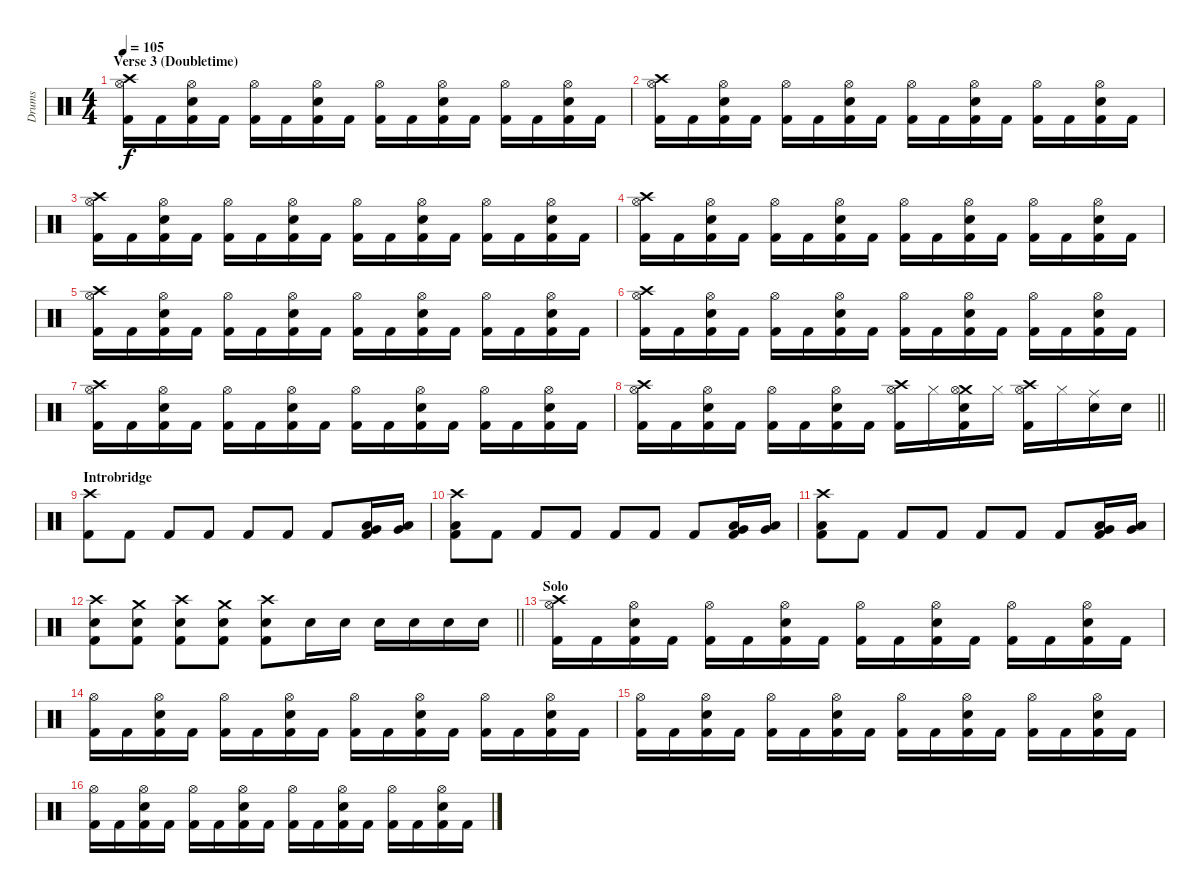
\track ("Drums" "Drums") {instrument percussion}
\staff {score}
\articulation defaults
\ts (4 4)
\section ("" "Verse 3 (Doubletime)")
\tempo 105
\clef neutral
\ks c
("Crash high (hit)" "Hi-Hat (open)" "Kick (hit) 2").16{dy f} "Kick (hit) 2".16 ("Hi-Hat (open)" "Snare (hit) 2" "Kick (hit) 2").16 "Kick (hit) 2".16 ("Hi-Hat (open)" "Kick (hit) 2").16 "Kick (hit) 2".16 ("Hi-Hat (open)" "Snare (hit) 2" "Kick (hit) 2").16 "Kick (hit) 2".16 ("Hi-Hat (open)" "Kick (hit) 2").16 "Kick (hit) 2".16 ("Hi-Hat (open)" "Snare (hit) 2" "Kick (hit) 2").16 "Kick (hit) 2".16 ("Hi-Hat (open)" "Kick (hit) 2").16 "Kick (hit) 2".16 ("Hi-Hat (open)" "Snare (hit) 2" "Kick (hit) 2").16 "Kick (hit) 2".16 |
("Crash high (hit)" "Hi-Hat (open)" "Kick (hit) 2").16 "Kick (hit) 2".16 ("Hi-Hat (open)" "Snare (hit) 2" "Kick (hit) 2").16 "Kick (hit) 2".16 ("Hi-Hat (open)" "Kick (hit) 2").16 "Kick (hit) 2".16 ("Hi-Hat (open)" "Snare (hit) 2" "Kick (hit) 2").16 "Kick (hit) 2".16 ("Hi-Hat (open)" "Kick (hit) 2").16 "Kick (hit) 2".16 ("Hi-Hat (open)" "Snare (hit) 2" "Kick (hit) 2").16 "Kick (hit) 2".16 ("Hi-Hat (open)" "Kick (hit) 2").16 "Kick (hit) 2".16 ("Hi-Hat (open)" "Snare (hit) 2" "Kick (hit) 2").16 "Kick (hit) 2".16 |
("Crash high (hit)" "Hi-Hat (open)" "Kick (hit) 2").16 "Kick (hit) 2".16 ("Hi-Hat (open)" "Snare (hit) 2" "Kick (hit) 2").16 "Kick (hit) 2".16 ("Hi-Hat (open)" "Kick (hit) 2").16 "Kick (hit) 2".16 ("Hi-Hat (open)" "Snare (hit) 2" "Kick (hit) 2").16 "Kick (hit) 2".16 ("Hi-Hat (open)" "Kick (hit) 2").16 "Kick (hit) 2".16 ("Hi-Hat (open)" "Snare (hit) 2" "Kick (hit) 2").16 "Kick (hit) 2".16 ("Hi-Hat (open)" "Kick (hit) 2").16 "Kick (hit) 2".16 ("Hi-Hat (open)" "Snare (hit) 2" "Kick (hit) 2").16 "Kick (hit) 2".16 |
("Crash high (hit)" "Hi-Hat (open)" "Kick (hit) 2").16 "Kick (hit) 2".16 ("Hi-Hat (open)" "Snare (hit) 2" "Kick (hit) 2").16 "Kick (hit) 2".16 ("Hi-Hat (open)" "Kick (hit) 2").16 "Kick (hit) 2".16 ("Hi-Hat (open)" "Snare (hit) 2" "Kick (hit) 2").16 "Kick (hit) 2".16 ("Hi-Hat (open)" "Kick (hit) 2").16 "Kick (hit) 2".16 ("Hi-Hat (open)" "Snare (hit) 2" "Kick (hit) 2").16 "Kick (hit) 2".16 ("Hi-Hat (open)" "Kick (hit) 2").16 "Kick (hit) 2".16 ("Hi-Hat (open)" "Snare (hit) 2" "Kick (hit) 2").16 "Kick (hit) 2".16 |
("Crash high (hit)" "Hi-Hat (open)" "Kick (hit) 2").16 "Kick (hit) 2".16 ("Hi-Hat (open)" "Snare (hit) 2" "Kick (hit) 2").16 "Kick (hit) 2".16 ("Hi-Hat (open)" "Kick (hit) 2").16 "Kick (hit) 2".16 ("Hi-Hat (open)" "Snare (hit) 2" "Kick (hit) 2").16 "Kick (hit) 2".16 ("Hi-Hat (open)" "Kick (hit) 2").16 "Kick (hit) 2".16 ("Hi-Hat (open)" "Snare (hit) 2" "Kick (hit) 2").16 "Kick (hit) 2".16 ("Hi-Hat (open)" "Kick (hit) 2").16 "Kick (hit) 2".16 ("Hi-Hat (open)" "Snare (hit) 2" "Kick (hit) 2").16 "Kick (hit) 2".16 |
("Crash high (hit)" "Hi-Hat (open)" "Kick (hit) 2").16 "Kick (hit) 2".16 ("Hi-Hat (open)" "Snare (hit) 2" "Kick (hit) 2").16 "Kick (hit) 2".16 ("Hi-Hat (open)" "Kick (hit) 2").16 "Kick (hit) 2".16 ("Hi-Hat (open)" "Snare (hit) 2" "Kick (hit) 2").16 "Kick (hit) 2".16 ("Hi-Hat (open)" "Kick (hit) 2").16 "Kick (hit) 2".16 ("Hi-Hat (open)" "Snare (hit) 2" "Kick (hit) 2").16 "Kick (hit) 2".16 ("Hi-Hat (open)" "Kick (hit) 2").16 "Kick (hit) 2".16 ("Hi-Hat (open)" "Snare (hit) 2" "Kick (hit) 2").16 "Kick (hit) 2".16 |
("Crash high (hit)" "Hi-Hat (open)" "Kick (hit) 2").16 "Kick (hit) 2".16 ("Hi-Hat (open)" "Snare (hit) 2" "Kick (hit) 2").16 "Kick (hit) 2".16 ("Hi-Hat (open)" "Kick (hit) 2").16 "Kick (hit) 2".16 ("Hi-Hat (open)" "Snare (hit) 2" "Kick (hit) 2").16 "Kick (hit) 2".16 ("Hi-Hat (open)" "Kick (hit) 2").16 "Kick (hit) 2".16 ("Hi-Hat (open)" "Snare (hit) 2" "Kick (hit) 2").16 "Kick (hit) 2".16 ("Hi-Hat (open)" "Kick (hit) 2").16 "Kick (hit) 2".16 ("Hi-Hat (open)" "Snare (hit) 2" "Kick (hit) 2").16 "Kick (hit) 2".16 |
\barLineRight lightlight
("Crash high (hit)" "Hi-Hat (open)" "Kick (hit) 2").16 "Kick (hit) 2".16 ("Hi-Hat (open)" "Snare (hit) 2" "Kick (hit) 2").16 "Kick (hit) 2".16 ("Hi-Hat (open)" "Kick (hit) 2").16 "Kick (hit) 2".16 ("Hi-Hat (open)" "Snare (hit) 2" "Kick (hit) 2").16 "Kick (hit) 2".16 ("Crash high (hit)" "Hi-Hat (open)" "Kick (hit) 2").16 "Hi-Hat (closed)".16 ("Crash medium (hit)" "Hi-Hat (open)" "Snare (hit) 2" "Kick (hit) 2").16 "Hi-Hat (closed)".16 ("Crash high (hit)" "Hi-Hat (open)" "Kick (hit) 2").16 "Hi-Hat (closed)".16 ("Ride (middle)" "Snare (hit) 2").16 "Snare (hit) 2".16 |
\section ("" "Introbridge")
("Crash high (hit)" "Kick (hit) 2").8 "Kick (hit) 2".8 "Kick (hit) 2".8 "Kick (hit) 2".8 "Kick (hit) 2".8 "Kick (hit) 2".8 "Kick (hit) 2".8 ("Very Low Tom (hit)" "Low Floor Tom (hit)" "Kick (hit) 2").16 ("Very Low Tom (hit)" "Low Floor Tom (hit)").16 |
("Crash high (hit)" "Low Floor Tom (hit)" "Kick (hit) 2").8 "Kick (hit) 2".8 "Kick (hit) 2".8 "Kick (hit) 2".8 "Kick (hit) 2".8 "Kick (hit) 2".8 "Kick (hit) 2".8 ("Very Low Tom (hit)" "Low Floor Tom (hit)" "Kick (hit) 2").16 ("Very Low Tom (hit)" "Low Floor Tom (hit)").16 |
("Crash high (hit)" "Low Floor Tom (hit)" "Kick (hit) 2").8 "Kick (hit) 2".8 "Kick (hit) 2".8 "Kick (hit) 2".8 "Kick (hit) 2".8 "Kick (hit) 2".8 "Kick (hit) 2".8 ("Very Low Tom (hit)" "Low Floor Tom (hit)" "Kick (hit) 2").16 ("Very Low Tom (hit)" "Low Floor Tom (hit)").16 |
\barLineRight lightlight
("Crash high (hit)" "Snare (hit) 2" "Kick (hit) 2").8 ("Crash medium (hit)" "Snare (hit) 2" "Kick (hit) 2").8 ("Crash high (hit)" "Snare (hit) 2" "Kick (hit) 2").8 ("Crash medium (hit)" "Snare (hit) 2" "Kick (hit) 2").8 ("Crash high (hit)" "Snare (hit) 2" "Kick (hit) 2").8 "Snare (hit) 2".16 "Snare (hit) 2".16 "Snare (hit) 2".16 "Snare (hit) 2".16 "Snare (hit) 2".16 "Snare (hit) 2".16 |
\section ("" "Solo")
("Crash high (hit)" "Hi-Hat (open)" "Kick (hit) 2").16 "Kick (hit) 2".16 ("Hi-Hat (open)" "Snare (hit) 2" "Kick (hit) 2").16 "Kick (hit) 2".16 ("Hi-Hat (open)" "Kick (hit) 2").16 "Kick (hit) 2".16 ("Hi-Hat (open)" "Snare (hit) 2" "Kick (hit) 2").16 "Kick (hit) 2".16 ("Hi-Hat (open)" "Kick (hit) 2").16 "Kick (hit) 2".16 ("Hi-Hat (open)" "Snare (hit) 2" "Kick (hit) 2").16 "Kick (hit) 2".16 ("Hi-Hat (open)" "Kick (hit) 2").16 "Kick (hit) 2".16 ("Hi-Hat (open)" "Snare (hit) 2" "Kick (hit) 2").16 "Kick (hit) 2".16 |
("Hi-Hat (open)" "Kick (hit) 2").16 "Kick (hit) 2".16 ("Hi-Hat (open)" "Snare (hit) 2" "Kick (hit) 2").16 "Kick (hit) 2".16 ("Hi-Hat (open)" "Kick (hit) 2").16 "Kick (hit) 2".16 ("Hi-Hat (open)" "Snare (hit) 2" "Kick (hit) 2").16 "Kick (hit) 2".16 ("Hi-Hat (open)" "Kick (hit) 2").16 "Kick (hit) 2".16 ("Hi-Hat (open)" "Snare (hit) 2" "Kick (hit) 2").16 "Kick (hit) 2".16 ("Hi-Hat (open)" "Kick (hit) 2").16 "Kick (hit) 2".16 ("Hi-Hat (open)" "Snare (hit) 2" "Kick (hit) 2").16 "Kick (hit) 2".16 |
("Hi-Hat (open)" "Kick (hit) 2").16 "Kick (hit) 2".16 ("Hi-Hat (open)" "Snare (hit) 2" "Kick (hit) 2").16 "Kick (hit) 2".16 ("Hi-Hat (open)" "Kick (hit) 2").16 "Kick (hit) 2".16 ("Hi-Hat (open)" "Snare (hit) 2" "Kick (hit) 2").16 "Kick (hit) 2".16 ("Hi-Hat (open)" "Kick (hit) 2").16 "Kick (hit) 2".16 ("Hi-Hat (open)" "Snare (hit) 2" "Kick (hit) 2").16 "Kick (hit) 2".16 ("Hi-Hat (open)" "Kick (hit) 2").16 "Kick (hit) 2".16 ("Hi-Hat (open)" "Snare (hit) 2" "Kick (hit) 2").16 "Kick (hit) 2".16 |
("Hi-Hat (open)" "Kick (hit) 2").16 "Kick (hit) 2".16 ("Hi-Hat (open)" "Snare (hit) 2" "Kick (hit) 2").16 "Kick (hit) 2".16 ("Hi-Hat (open)" "Kick (hit) 2").16 "Kick (hit) 2".16 ("Hi-Hat (open)" "Snare (hit) 2" "Kick (hit) 2").16 "Kick (hit) 2".16 ("Hi-Hat (open)" "Kick (hit) 2").16 "Kick (hit) 2".16 ("Hi-Hat (open)" "Snare (hit) 2" "Kick (hit) 2").16 "Kick (hit) 2".16 ("Hi-Hat (open)" "Kick (hit) 2").16 "Kick (hit) 2".16 ("Hi-Hat (open)" "Snare (hit) 2" "Kick (hit) 2").16 "Kick (hit) 2".16
